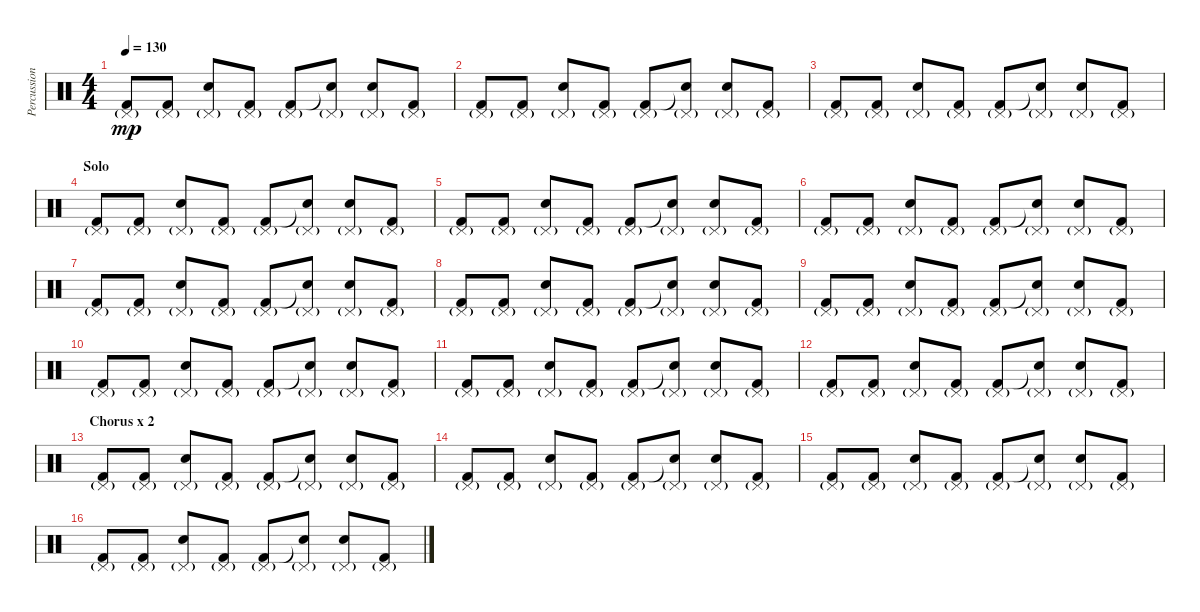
\track ("Percussioni" "Percussion") {instrument percussion}
\staff {score}
\articulation defaults
\ts (4 4)
\tempo 130
\clef neutral
\ks c
("Pedal Hi-Hat (hit)"{g} "Kick (hit) 2").8{dy mp} ("Pedal Hi-Hat (hit)"{g} "Kick (hit) 2").8 ("Pedal Hi-Hat (hit)"{g} "Snare (hit) 2").8 ("Pedal Hi-Hat (hit)"{g} "Kick (hit) 2").8 ("Pedal Hi-Hat (hit)"{g} "Kick (hit) 2").8 ("Pedal Hi-Hat (hit)"{g} "Snare (hit)"{t}).8 ("Pedal Hi-Hat (hit)"{g} "Snare (hit) 2").8 ("Pedal Hi-Hat (hit)"{g} "Kick (hit) 2").8 |
("Pedal Hi-Hat (hit)"{g} "Kick (hit) 2").8 ("Pedal Hi-Hat (hit)"{g} "Kick (hit) 2").8 ("Pedal Hi-Hat (hit)"{g} "Snare (hit) 2").8 ("Pedal Hi-Hat (hit)"{g} "Kick (hit) 2").8 ("Pedal Hi-Hat (hit)"{g} "Kick (hit) 2").8 ("Pedal Hi-Hat (hit)"{g} "Snare (hit)"{t}).8 ("Pedal Hi-Hat (hit)"{g} "Snare (hit) 2").8 ("Pedal Hi-Hat (hit)"{g} "Kick (hit) 2").8 |
("Pedal Hi-Hat (hit)"{g} "Kick (hit) 2").8 ("Pedal Hi-Hat (hit)"{g} "Kick (hit) 2").8 ("Pedal Hi-Hat (hit)"{g} "Snare (hit) 2").8 ("Pedal Hi-Hat (hit)"{g} "Kick (hit) 2").8 ("Pedal Hi-Hat (hit)"{g} "Kick (hit) 2").8 ("Pedal Hi-Hat (hit)"{g} "Snare (hit)"{t}).8 ("Pedal Hi-Hat (hit)"{g} "Snare (hit) 2").8 ("Pedal Hi-Hat (hit)"{g} "Kick (hit) 2").8 |
\section ("" "Solo")
("Pedal Hi-Hat (hit)"{g} "Kick (hit) 2").8 ("Pedal Hi-Hat (hit)"{g} "Kick (hit) 2").8 ("Pedal Hi-Hat (hit)"{g} "Snare (hit) 2").8 ("Pedal Hi-Hat (hit)"{g} "Kick (hit) 2").8 ("Pedal Hi-Hat (hit)"{g} "Kick (hit) 2").8 ("Pedal Hi-Hat (hit)"{g} "Snare (hit)"{t}).8 ("Pedal Hi-Hat (hit)"{g} "Snare (hit) 2").8 ("Pedal Hi-Hat (hit)"{g} "Kick (hit) 2").8 |
("Pedal Hi-Hat (hit)"{g} "Kick (hit) 2").8 ("Pedal Hi-Hat (hit)"{g} "Kick (hit) 2").8 ("Pedal Hi-Hat (hit)"{g} "Snare (hit) 2").8 ("Pedal Hi-Hat (hit)"{g} "Kick (hit) 2").8 ("Pedal Hi-Hat (hit)"{g} "Kick (hit) 2").8 ("Pedal Hi-Hat (hit)"{g} "Snare (hit)"{t}).8 ("Pedal Hi-Hat (hit)"{g} "Snare (hit) 2").8 ("Pedal Hi-Hat (hit)"{g} "Kick (hit) 2").8 |
("Pedal Hi-Hat (hit)"{g} "Kick (hit) 2").8 ("Pedal Hi-Hat (hit)"{g} "Kick (hit) 2").8 ("Pedal Hi-Hat (hit)"{g} "Snare (hit) 2").8 ("Pedal Hi-Hat (hit)"{g} "Kick (hit) 2").8 ("Pedal Hi-Hat (hit)"{g} "Kick (hit) 2").8 ("Pedal Hi-Hat (hit)"{g} "Snare (hit)"{t}).8 ("Pedal Hi-Hat (hit)"{g} "Snare (hit) 2").8 ("Pedal Hi-Hat (hit)"{g} "Kick (hit) 2").8 |
("Pedal Hi-Hat (hit)"{g} "Kick (hit) 2").8 ("Pedal Hi-Hat (hit)"{g} "Kick (hit) 2").8 ("Pedal Hi-Hat (hit)"{g} "Snare (hit) 2").8 ("Pedal Hi-Hat (hit)"{g} "Kick (hit) 2").8 ("Pedal Hi-Hat (hit)"{g} "Kick (hit) 2").8 ("Pedal Hi-Hat (hit)"{g} "Snare (hit)"{t}).8 ("Pedal Hi-Hat (hit)"{g} "Snare (hit) 2").8 ("Pedal Hi-Hat (hit)"{g} "Kick (hit) 2").8 |
("Pedal Hi-Hat (hit)"{g} "Kick (hit) 2").8 ("Pedal Hi-Hat (hit)"{g} "Kick (hit) 2").8 ("Pedal Hi-Hat (hit)"{g} "Snare (hit) 2").8 ("Pedal Hi-Hat (hit)"{g} "Kick (hit) 2").8 ("Pedal Hi-Hat (hit)"{g} "Kick (hit) 2").8 ("Pedal Hi-Hat (hit)"{g} "Snare (hit)"{t}).8 ("Pedal Hi-Hat (hit)"{g} "Snare (hit) 2").8 ("Pedal Hi-Hat (hit)"{g} "Kick (hit) 2").8 |
("Pedal Hi-Hat (hit)"{g} "Kick (hit) 2").8 ("Pedal Hi-Hat (hit)"{g} "Kick (hit) 2").8 ("Pedal Hi-Hat (hit)"{g} "Snare (hit) 2").8 ("Pedal Hi-Hat (hit)"{g} "Kick (hit) 2").8 ("Pedal Hi-Hat (hit)"{g} "Kick (hit) 2").8 ("Pedal Hi-Hat (hit)"{g} "Snare (hit)"{t}).8 ("Pedal Hi-Hat (hit)"{g} "Snare (hit) 2").8 ("Pedal Hi-Hat (hit)"{g} "Kick (hit) 2").8 |
("Pedal Hi-Hat (hit)"{g} "Kick (hit) 2").8 ("Pedal Hi-Hat (hit)"{g} "Kick (hit) 2").8 ("Pedal Hi-Hat (hit)"{g} "Snare (hit) 2").8 ("Pedal Hi-Hat (hit)"{g} "Kick (hit) 2").8 ("Pedal Hi-Hat (hit)"{g} "Kick (hit) 2").8 ("Pedal Hi-Hat (hit)"{g} "Snare (hit)"{t}).8 ("Pedal Hi-Hat (hit)"{g} "Snare (hit) 2").8 ("Pedal Hi-Hat (hit)"{g} "Kick (hit) 2").8 |
("Pedal Hi-Hat (hit)"{g} "Kick (hit) 2").8 ("Pedal Hi-Hat (hit)"{g} "Kick (hit) 2").8 ("Pedal Hi-Hat (hit)"{g} "Snare (hit) 2").8 ("Pedal Hi-Hat (hit)"{g} "Kick (hit) 2").8 ("Pedal Hi-Hat (hit)"{g} "Kick (hit) 2").8 ("Pedal Hi-Hat (hit)"{g} "Snare (hit)"{t}).8 ("Pedal Hi-Hat (hit)"{g} "Snare (hit) 2").8 ("Pedal Hi-Hat (hit)"{g} "Kick (hit) 2").8 |
("Pedal Hi-Hat (hit)"{g} "Kick (hit) 2").8 ("Pedal Hi-Hat (hit)"{g} "Kick (hit) 2").8 ("Pedal Hi-Hat (hit)"{g} "Snare (hit) 2").8 ("Pedal Hi-Hat (hit)"{g} "Kick (hit) 2").8 ("Pedal Hi-Hat (hit)"{g} "Kick (hit) 2").8 ("Pedal Hi-Hat (hit)"{g} "Snare (hit)"{t}).8 ("Pedal Hi-Hat (hit)"{g} "Snare (hit) 2").8 ("Pedal Hi-Hat (hit)"{g} "Kick (hit) 2").8 |
\section ("" "Chorus x 2")
("Pedal Hi-Hat (hit)"{g} "Kick (hit) 2").8 ("Pedal Hi-Hat (hit)"{g} "Kick (hit) 2").8 ("Pedal Hi-Hat (hit)"{g} "Snare (hit) 2").8 ("Pedal Hi-Hat (hit)"{g} "Kick (hit) 2").8 ("Pedal Hi-Hat (hit)"{g} "Kick (hit) 2").8 ("Pedal Hi-Hat (hit)"{g} "Snare (hit)"{t}).8 ("Pedal Hi-Hat (hit)"{g} "Snare (hit) 2").8 ("Pedal Hi-Hat (hit)"{g} "Kick (hit) 2").8 |
("Pedal Hi-Hat (hit)"{g} "Kick (hit) 2").8 ("Pedal Hi-Hat (hit)"{g} "Kick (hit) 2").8 ("Pedal Hi-Hat (hit)"{g} "Snare (hit) 2").8 ("Pedal Hi-Hat (hit)"{g} "Kick (hit) 2").8 ("Pedal Hi-Hat (hit)"{g} "Kick (hit) 2").8 ("Pedal Hi-Hat (hit)"{g} "Snare (hit)"{t}).8 ("Pedal Hi-Hat (hit)"{g} "Snare (hit) 2").8 ("Pedal Hi-Hat (hit)"{g} "Kick (hit) 2").8 |
("Pedal Hi-Hat (hit)"{g} "Kick (hit) 2").8 ("Pedal Hi-Hat (hit)"{g} "Kick (hit) 2").8 ("Pedal Hi-Hat (hit)"{g} "Snare (hit) 2").8 ("Pedal Hi-Hat (hit)"{g} "Kick (hit) 2").8 ("Pedal Hi-Hat (hit)"{g} "Kick (hit) 2").8 ("Pedal Hi-Hat (hit)"{g} "Snare (hit)"{t}).8 ("Pedal Hi-Hat (hit)"{g} "Snare (hit) 2").8 ("Pedal Hi-Hat (hit)"{g} "Kick (hit) 2").8 |
("Pedal Hi-Hat (hit)"{g} "Kick (hit) 2").8 ("Pedal Hi-Hat (hit)"{g} "Kick (hit) 2").8 ("Pedal Hi-Hat (hit)"{g} "Snare (hit) 2").8 ("Pedal Hi-Hat (hit)"{g} "Kick (hit) 2").8 ("Pedal Hi-Hat (hit)"{g} "Kick (hit) 2").8 ("Pedal Hi-Hat (hit)"{g} "Snare (hit)"{t}).8 ("Pedal Hi-Hat (hit)"{g} "Snare (hit) 2").8 ("Pedal Hi-Hat (hit)"{g} "Kick (hit) 2").8
